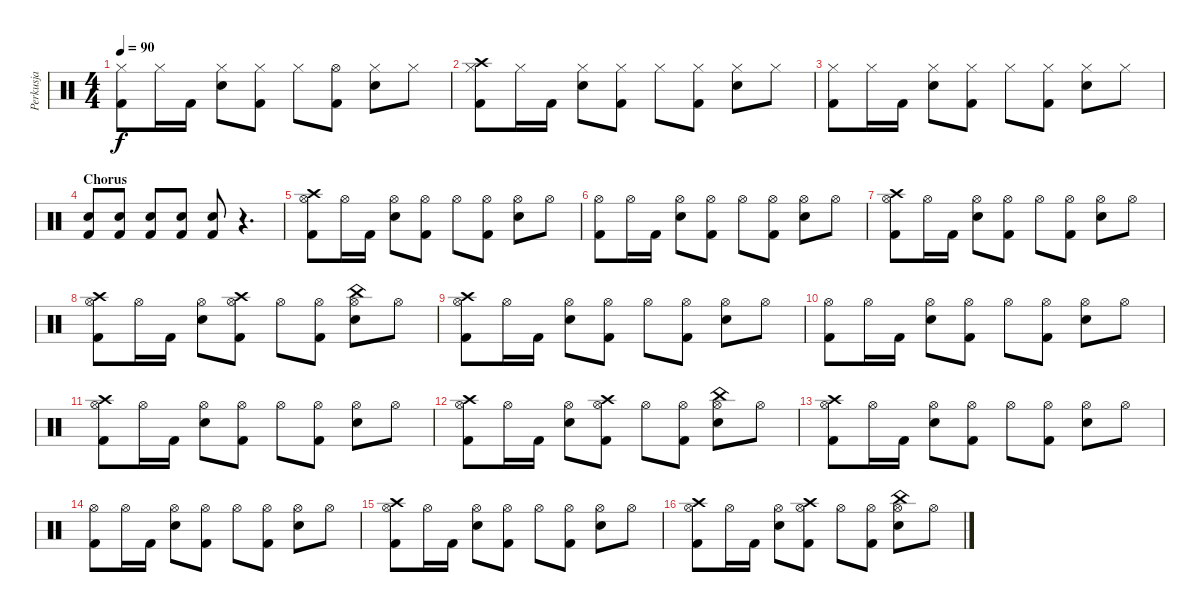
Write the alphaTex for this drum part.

\track ("Perkusja" "Perkusja") {instrument percussion}
\staff {score}
\articulation defaults
\ts (4 4)
\tempo 90
\clef neutral
\ks c
("Hi-Hat (closed)" "Kick (hit) 2").8{dy f} "Hi-Hat (closed)".16 "Kick (hit) 2".16 ("Hi-Hat (closed)" "Snare (hit) 2").8 ("Hi-Hat (closed)" "Kick (hit) 2").8 "Hi-Hat (closed)".8 ("Hi-Hat (open)" "Kick (hit) 2").8 ("Hi-Hat (closed)" "Snare (hit) 2").8 "Hi-Hat (closed)".8 |
("Hi-Hat (closed)" "Kick (hit) 2" "Crash high (hit)").8 "Hi-Hat (closed)".16 "Kick (hit) 2".16 ("Hi-Hat (closed)" "Snare (hit) 2").8 ("Hi-Hat (closed)" "Kick (hit) 2").8 "Hi-Hat (closed)".8 ("Hi-Hat (closed)" "Kick (hit) 2").8 ("Hi-Hat (closed)" "Snare (hit) 2").8 "Hi-Hat (closed)".8 |
("Hi-Hat (closed)" "Kick (hit) 2").8 "Hi-Hat (closed)".16 "Kick (hit) 2".16 ("Hi-Hat (closed)" "Snare (hit) 2").8 ("Hi-Hat (closed)" "Kick (hit) 2").8 "Hi-Hat (closed)".8 ("Hi-Hat (closed)" "Kick (hit) 2").8 ("Hi-Hat (closed)" "Snare (hit) 2").8 "Hi-Hat (closed)".8 |
\section ("" "Chorus")
("Kick (hit) 2" "Snare (hit) 2").8 ("Kick (hit) 2" "Snare (hit) 2").8 ("Kick (hit) 2" "Snare (hit) 2").8 ("Kick (hit) 2" "Snare (hit) 2").8 ("Kick (hit) 2" "Snare (hit) 2").8 r.4{d} |
("Hi-Hat (open)" "Kick (hit) 2" "Crash high (hit)").8 "Hi-Hat (open)".16 "Kick (hit) 2".16 ("Hi-Hat (open)" "Snare (hit) 2").8 ("Hi-Hat (open)" "Kick (hit) 2").8 "Hi-Hat (open)".8 ("Hi-Hat (open)" "Kick (hit) 2").8 ("Hi-Hat (open)" "Snare (hit) 2").8 "Hi-Hat (open)".8 |
("Hi-Hat (open)" "Kick (hit) 2").8 "Hi-Hat (open)".16 "Kick (hit) 2".16 ("Hi-Hat (open)" "Snare (hit) 2").8 ("Hi-Hat (open)" "Kick (hit) 2").8 "Hi-Hat (open)".8 ("Hi-Hat (open)" "Kick (hit) 2").8 ("Hi-Hat (open)" "Snare (hit) 2").8 "Hi-Hat (open)".8 |
("Hi-Hat (open)" "Kick (hit) 2" "Crash high (hit)").8 "Hi-Hat (open)".16 "Kick (hit) 2".16 ("Hi-Hat (open)" "Snare (hit) 2").8 ("Hi-Hat (open)" "Kick (hit) 2").8 "Hi-Hat (open)".8 ("Hi-Hat (open)" "Kick (hit) 2").8 ("Hi-Hat (open)" "Snare (hit) 2").8 "Hi-Hat (open)".8 |
("Hi-Hat (open)" "Kick (hit) 2" "Crash high (hit)").8 "Hi-Hat (open)".16 "Kick (hit) 2".16 ("Hi-Hat (open)" "Snare (hit) 2").8 ("Hi-Hat (open)" "Kick (hit) 2" "Crash high (hit)").8 "Hi-Hat (open)".8 ("Hi-Hat (open)" "Kick (hit) 2").8 ("Hi-Hat (open)" "Snare (hit) 2" "China (hit)").8 "Hi-Hat (open)".8 |
("Hi-Hat (open)" "Kick (hit) 2" "Crash high (hit)").8 "Hi-Hat (open)".16 "Kick (hit) 2".16 ("Hi-Hat (open)" "Snare (hit) 2").8 ("Hi-Hat (open)" "Kick (hit) 2").8 "Hi-Hat (open)".8 ("Hi-Hat (open)" "Kick (hit) 2").8 ("Hi-Hat (open)" "Snare (hit) 2").8 "Hi-Hat (open)".8 |
("Hi-Hat (open)" "Kick (hit) 2").8 "Hi-Hat (open)".16 "Kick (hit) 2".16 ("Hi-Hat (open)" "Snare (hit) 2").8 ("Hi-Hat (open)" "Kick (hit) 2").8 "Hi-Hat (open)".8 ("Hi-Hat (open)" "Kick (hit) 2").8 ("Hi-Hat (open)" "Snare (hit) 2").8 "Hi-Hat (open)".8 |
("Hi-Hat (open)" "Kick (hit) 2" "Crash high (hit)").8 "Hi-Hat (open)".16 "Kick (hit) 2".16 ("Hi-Hat (open)" "Snare (hit) 2").8 ("Hi-Hat (open)" "Kick (hit) 2").8 "Hi-Hat (open)".8 ("Hi-Hat (open)" "Kick (hit) 2").8 ("Hi-Hat (open)" "Snare (hit) 2").8 "Hi-Hat (open)".8 |
("Hi-Hat (open)" "Kick (hit) 2" "Crash high (hit)").8 "Hi-Hat (open)".16 "Kick (hit) 2".16 ("Hi-Hat (open)" "Snare (hit) 2").8 ("Hi-Hat (open)" "Kick (hit) 2" "Crash high (hit)").8 "Hi-Hat (open)".8 ("Hi-Hat (open)" "Kick (hit) 2").8 ("Hi-Hat (open)" "Snare (hit) 2" "China (hit)").8 "Hi-Hat (open)".8 |
("Hi-Hat (open)" "Kick (hit) 2" "Crash high (hit)").8 "Hi-Hat (open)".16 "Kick (hit) 2".16 ("Hi-Hat (open)" "Snare (hit) 2").8 ("Hi-Hat (open)" "Kick (hit) 2").8 "Hi-Hat (open)".8 ("Hi-Hat (open)" "Kick (hit) 2").8 ("Hi-Hat (open)" "Snare (hit) 2").8 "Hi-Hat (open)".8 |
("Hi-Hat (open)" "Kick (hit) 2").8 "Hi-Hat (open)".16 "Kick (hit) 2".16 ("Hi-Hat (open)" "Snare (hit) 2").8 ("Hi-Hat (open)" "Kick (hit) 2").8 "Hi-Hat (open)".8 ("Hi-Hat (open)" "Kick (hit) 2").8 ("Hi-Hat (open)" "Snare (hit) 2").8 "Hi-Hat (open)".8 |
("Hi-Hat (open)" "Kick (hit) 2" "Crash high (hit)").8 "Hi-Hat (open)".16 "Kick (hit) 2".16 ("Hi-Hat (open)" "Snare (hit) 2").8 ("Hi-Hat (open)" "Kick (hit) 2").8 "Hi-Hat (open)".8 ("Hi-Hat (open)" "Kick (hit) 2").8 ("Hi-Hat (open)" "Snare (hit) 2").8 "Hi-Hat (open)".8 |
("Hi-Hat (open)" "Kick (hit) 2" "Crash high (hit)").8 "Hi-Hat (open)".16 "Kick (hit) 2".16 ("Hi-Hat (open)" "Snare (hit) 2").8 ("Hi-Hat (open)" "Kick (hit) 2" "Crash high (hit)").8 "Hi-Hat (open)".8 ("Hi-Hat (open)" "Kick (hit) 2").8 ("Hi-Hat (open)" "Snare (hit) 2" "China (hit)").8 "Hi-Hat (open)".8
